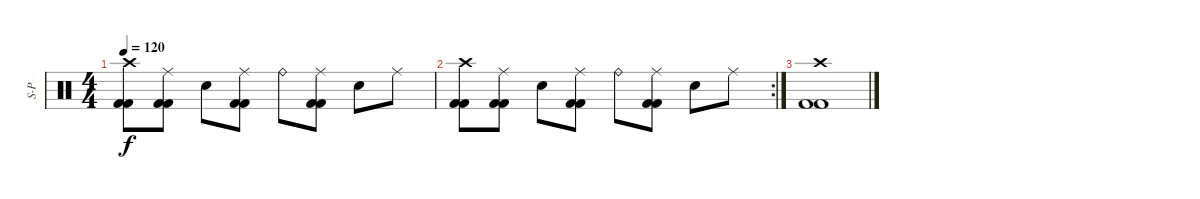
\track ("S-P" "S-P") {instrument percussion}
\staff {score}
\articulation defaults
\ts (4 4)
\tempo 120
\clef neutral
\ks c
("Crash high (hit)" "Kick (hit) 2" "Kick (hit) 2").8{dy f} ("Ride (middle)" "Kick (hit) 2" "Kick (hit) 2").8 "Electric Snare (hit)".8 ("Ride (middle)" "Kick (hit) 2" "Kick (hit) 2").8 "Ride (bell)".8 ("Ride (middle)" "Kick (hit) 2" "Kick (hit) 2").8 "Electric Snare (hit)".8 "Ride (middle)".8 |
\rc 2
("Crash high (hit)" "Kick (hit) 2" "Kick (hit) 2").8 ("Ride (middle)" "Kick (hit) 2" "Kick (hit) 2").8 "Electric Snare (hit)".8 ("Ride (middle)" "Kick (hit) 2" "Kick (hit) 2").8 "Ride (bell)".8 ("Ride (middle)" "Kick (hit) 2" "Kick (hit) 2").8 "Electric Snare (hit)".8 "Ride (middle)".8 |
("Crash high (hit)" "Kick (hit) 2" "Kick (hit) 2").1
